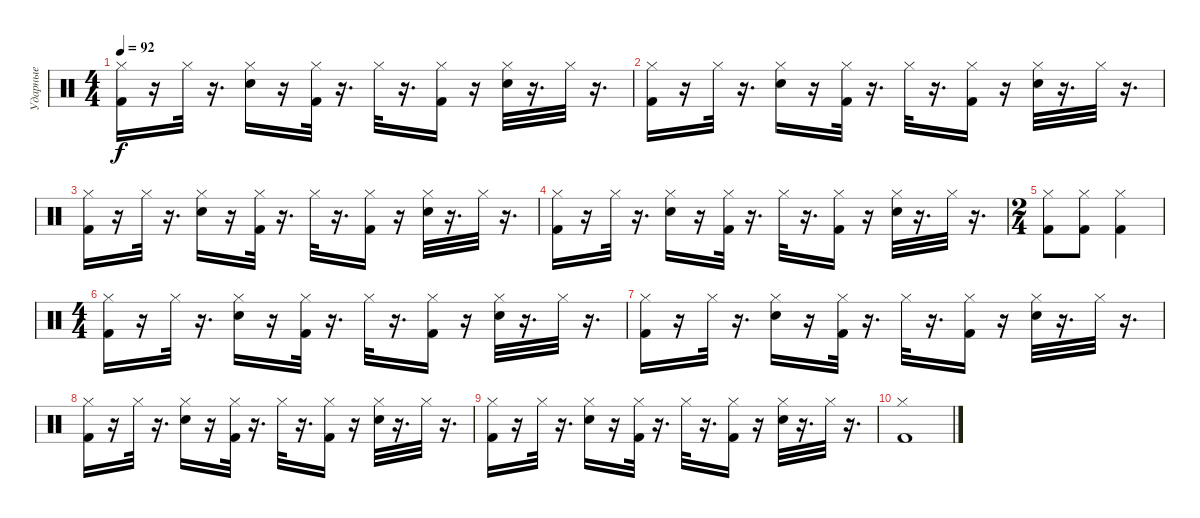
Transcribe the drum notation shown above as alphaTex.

\track ("Ударные" "Ударные") {instrument percussion}
\staff {score}
\articulation defaults
\ts (4 4)
\tempo 92
\clef neutral
\ks c
("Kick (hit) 2" "Hi-Hat (closed)").16{dy f} r.16 "Hi-Hat (closed)".32 r.16{d} ("Electric Snare (hit)" "Hi-Hat (closed)").16 r.16 ("Kick (hit) 2" "Hi-Hat (closed)").32 r.16{d} "Hi-Hat (closed)".32 r.16{d} ("Kick (hit) 2" "Hi-Hat (closed)").16 r.16 ("Electric Snare (hit)" "Hi-Hat (closed)").32 r.16{d} "Hi-Hat (closed)".32 r.16{d} |
("Kick (hit) 2" "Hi-Hat (closed)").16 r.16 "Hi-Hat (closed)".32 r.16{d} ("Electric Snare (hit)" "Hi-Hat (closed)").16 r.16 ("Kick (hit) 2" "Hi-Hat (closed)").32 r.16{d} "Hi-Hat (closed)".32 r.16{d} ("Kick (hit) 2" "Hi-Hat (closed)").16 r.16 ("Electric Snare (hit)" "Hi-Hat (closed)").32 r.16{d} "Hi-Hat (closed)".32 r.16{d} |
("Kick (hit) 2" "Hi-Hat (closed)").16 r.16 "Hi-Hat (closed)".32 r.16{d} ("Electric Snare (hit)" "Hi-Hat (closed)").16 r.16 ("Kick (hit) 2" "Hi-Hat (closed)").32 r.16{d} "Hi-Hat (closed)".32 r.16{d} ("Kick (hit) 2" "Hi-Hat (closed)").16 r.16 ("Electric Snare (hit)" "Hi-Hat (closed)").32 r.16{d} "Hi-Hat (closed)".32 r.16{d} |
("Kick (hit) 2" "Hi-Hat (closed)").16 r.16 "Hi-Hat (closed)".32 r.16{d} ("Electric Snare (hit)" "Hi-Hat (closed)").16 r.16 ("Kick (hit) 2" "Hi-Hat (closed)").32 r.16{d} "Hi-Hat (closed)".32 r.16{d} ("Kick (hit) 2" "Hi-Hat (closed)").16 r.16 ("Electric Snare (hit)" "Hi-Hat (closed)").32 r.16{d} "Hi-Hat (closed)".32 r.16{d} |
\ts (2 4)
("Kick (hit) 2" "Hi-Hat (closed)").8 ("Kick (hit) 2" "Hi-Hat (closed)").8 ("Kick (hit) 2" "Hi-Hat (closed)").4 |
\ts (4 4)
("Kick (hit) 2" "Hi-Hat (closed)").16 r.16 "Hi-Hat (closed)".32 r.16{d} ("Electric Snare (hit)" "Hi-Hat (closed)").16 r.16 ("Kick (hit) 2" "Hi-Hat (closed)").32 r.16{d} "Hi-Hat (closed)".32 r.16{d} ("Kick (hit) 2" "Hi-Hat (closed)").16 r.16 ("Electric Snare (hit)" "Hi-Hat (closed)").32 r.16{d} "Hi-Hat (closed)".32 r.16{d} |
("Kick (hit) 2" "Hi-Hat (closed)").16 r.16 "Hi-Hat (closed)".32 r.16{d} ("Electric Snare (hit)" "Hi-Hat (closed)").16 r.16 ("Kick (hit) 2" "Hi-Hat (closed)").32 r.16{d} "Hi-Hat (closed)".32 r.16{d} ("Kick (hit) 2" "Hi-Hat (closed)").16 r.16 ("Electric Snare (hit)" "Hi-Hat (closed)").32 r.16{d} "Hi-Hat (closed)".32 r.16{d} |
("Kick (hit) 2" "Hi-Hat (closed)").16 r.16 "Hi-Hat (closed)".32 r.16{d} ("Electric Snare (hit)" "Hi-Hat (closed)").16 r.16 ("Kick (hit) 2" "Hi-Hat (closed)").32 r.16{d} "Hi-Hat (closed)".32 r.16{d} ("Kick (hit) 2" "Hi-Hat (closed)").16 r.16 ("Electric Snare (hit)" "Hi-Hat (closed)").32 r.16{d} "Hi-Hat (closed)".32 r.16{d} |
("Kick (hit) 2" "Hi-Hat (closed)").16 r.16 "Hi-Hat (closed)".32 r.16{d} ("Electric Snare (hit)" "Hi-Hat (closed)").16 r.16 ("Kick (hit) 2" "Hi-Hat (closed)").32 r.16{d} "Hi-Hat (closed)".32 r.16{d} ("Kick (hit) 2" "Hi-Hat (closed)").16 r.16 ("Electric Snare (hit)" "Hi-Hat (closed)").32 r.16{d} "Hi-Hat (closed)".32 r.16{d} |
("Kick (hit) 2" "Hi-Hat (closed)").1
